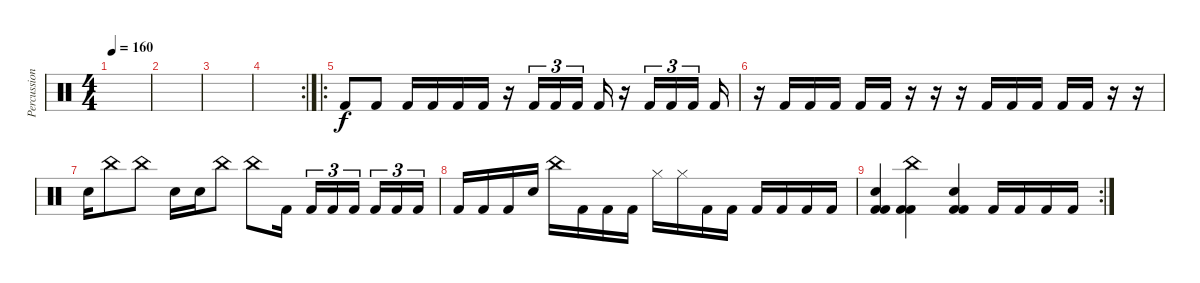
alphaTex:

\track ("Percussion" "Percussion") {instrument percussion}
\staff {score}
\articulation defaults
\ts (4 4)
\tempo 160
\clef neutral
\ks c
|
|
|
\rc 2
|
\ro "Kick (hit) 2".8 "Kick (hit) 2".8 "Kick (hit) 2".16 "Kick (hit) 2".16 "Kick (hit) 2".16 "Kick (hit) 2".16
r.16 "Kick (hit) 2".16{tu (3 2)} "Kick (hit) 2".16{tu (3 2)} "Kick (hit) 2".16{tu (3 2) beam splitsecondary} "Kick (hit) 2".16 r.16 "Kick (hit) 2".16{tu (3 2)} "Kick (hit) 2".16{tu (3 2)} "Kick (hit) 2".16{tu (3 2) beam splitsecondary} "Kick (hit) 2".16 |
r.16 "Kick (hit) 2".16 "Kick (hit) 2".16 "Kick (hit) 2".16 "Kick (hit) 2".16 "Kick (hit) 2".16 r.16 r.16 r.16 "Kick (hit) 2".16 "Kick (hit) 2".16 "Kick (hit) 2".16 "Kick (hit) 2".16 "Kick (hit) 2".16 r.16 r.16 |
"Snare (hit) 2".16 "China (hit)".8 "China (hit)".8 "Snare (hit) 2".16 "Snare (hit) 2".16 "China (hit)".8 "China (hit)".8 "Kick (hit) 2".16 "Kick (hit) 2".16{tu (3 2)} "Kick (hit) 2".16{tu (3 2)} "Kick (hit) 2".16{tu (3 2) beam splitsecondary} "Kick (hit) 2".16{tu (3 2)} "Kick (hit) 2".16{tu (3 2)} "Kick (hit) 2".16{tu (3 2)} |
"Kick (hit) 2".16 "Kick (hit) 2".16 "Kick (hit) 2".16 "Snare (hit) 2".16 "China (hit)".16 "Kick (hit) 2".16 "Kick (hit) 2".16 "Kick (hit) 2".16 "Hi-Hat (closed)".16 "Hi-Hat (closed)".16 "Kick (hit) 2".16 "Kick (hit) 2".16 "Kick (hit) 2".16 "Kick (hit) 2".16 "Kick (hit) 2".16 "Kick (hit) 2".16 |
\rc 2
("Snare (hit) 2" "Kick (hit) 2" "Kick (hit) 2").4 ("China (hit)" "Kick (hit) 2" "Kick (hit) 2").4 ("Snare (hit) 2" "Kick (hit) 2" "Kick (hit) 2").4 "Kick (hit) 2".16 "Kick (hit) 2".16 "Kick (hit) 2".16 "Kick (hit) 2".16
